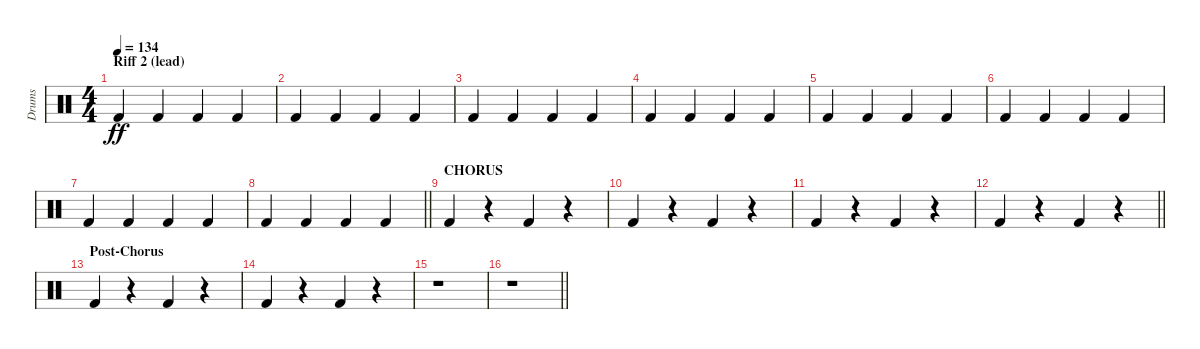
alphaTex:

\track ("Drums" "Drums") {instrument percussion}
\staff {score}
\articulation defaults
\ts (4 4)
\section ("" "Riff 2 (lead)")
\tempo 134
\clef neutral
\ks c "Kick (hit) 2".4{dy ff} "Kick (hit) 2".4 "Kick (hit) 2".4 "Kick (hit) 2".4
|
"Kick (hit) 2".4 "Kick (hit) 2".4 "Kick (hit) 2".4 "Kick (hit) 2".4 |
"Kick (hit) 2".4 "Kick (hit) 2".4 "Kick (hit) 2".4 "Kick (hit) 2".4 |
"Kick (hit) 2".4 "Kick (hit) 2".4 "Kick (hit) 2".4 "Kick (hit) 2".4 |
"Kick (hit) 2".4 "Kick (hit) 2".4 "Kick (hit) 2".4 "Kick (hit) 2".4 |
"Kick (hit) 2".4 "Kick (hit) 2".4 "Kick (hit) 2".4 "Kick (hit) 2".4 |
"Kick (hit) 2".4 "Kick (hit) 2".4 "Kick (hit) 2".4 "Kick (hit) 2".4 |
\barLineRight lightlight "Kick (hit) 2".4 "Kick (hit) 2".4 "Kick (hit) 2".4 "Kick (hit) 2".4
|
\section ("" "CHORUS")
"Kick (hit) 2".4 r.4 "Kick (hit) 2".4 r.4 |
"Kick (hit) 2".4 r.4 "Kick (hit) 2".4 r.4 |
"Kick (hit) 2".4 r.4 "Kick (hit) 2".4 r.4 |
\barLineRight lightlight "Kick (hit) 2".4
r.4 "Kick (hit) 2".4 r.4 |
\section ("" "Post-Chorus")
"Kick (hit) 2".4 r.4 "Kick (hit) 2".4 r.4 |
"Kick (hit) 2".4 r.4 "Kick (hit) 2".4 r.4 |
r.1 |
\barLineRight lightlight
r.1
